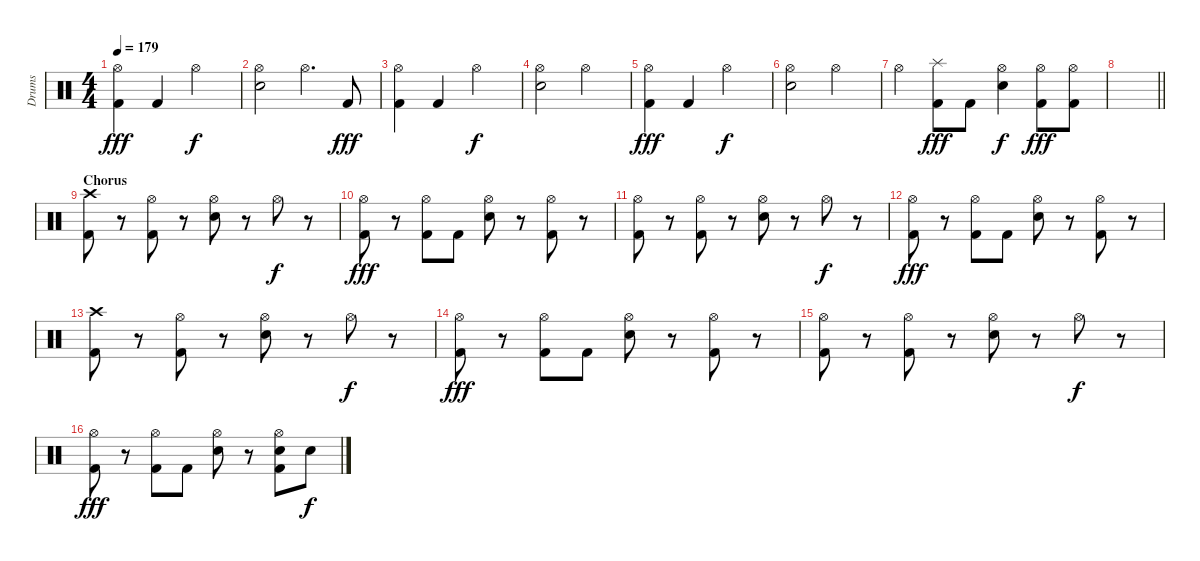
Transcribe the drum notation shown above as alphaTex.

\track ("Drums" "Drums") {instrument percussion}
\staff {score}
\articulation defaults
\ts (4 4)
\tempo 179
\clef neutral
\ks c
("Hi-Hat (open)" "Kick (hit) 2").4{dy fff} "Kick (hit) 2".4 "Hi-Hat (open)".2{dy f} |
("Hi-Hat (open)" "Snare (hit) 2").2 "Hi-Hat (open)".4{d} "Kick (hit) 2".8{dy fff} |
("Hi-Hat (open)" "Kick (hit) 2").4 "Kick (hit) 2".4 "Hi-Hat (open)".2{dy f} |
("Hi-Hat (open)" "Snare (hit) 2").2 "Hi-Hat (open)".2 |
("Hi-Hat (open)" "Kick (hit) 2").4{dy fff} "Kick (hit) 2".4 "Hi-Hat (open)".2{dy f} |
("Hi-Hat (open)" "Snare (hit) 2").2 "Hi-Hat (open)".2 |
"Hi-Hat (open)".4 ("Splash (hit)" "Kick (hit) 2").8{dy fff} "Kick (hit) 2".8 ("Hi-Hat (open)" "Snare (hit) 2").4{dy f} ("Hi-Hat (open)" "Kick (hit) 2").8{dy fff} ("Hi-Hat (open)" "Kick (hit) 2").8 |
\barLineRight lightlight
|
\section ("" "Chorus")
("Crash high (hit)" "Kick (hit) 2").8 r.8 ("Hi-Hat (open)" "Kick (hit) 2").8 r.8 ("Hi-Hat (open)" "Snare (hit) 2").8 r.8 "Hi-Hat (open)".8{dy f} r.8 |
("Hi-Hat (open)" "Kick (hit) 2").8{dy fff} r.8 ("Hi-Hat (open)" "Kick (hit) 2").8 "Kick (hit) 2".8 ("Hi-Hat (open)" "Snare (hit) 2").8 r.8 ("Hi-Hat (open)" "Kick (hit) 2").8 r.8 |
("Hi-Hat (open)" "Kick (hit) 2").8 r.8 ("Hi-Hat (open)" "Kick (hit) 2").8 r.8 ("Hi-Hat (open)" "Snare (hit) 2").8 r.8 "Hi-Hat (open)".8{dy f} r.8 |
("Hi-Hat (open)" "Kick (hit) 2").8{dy fff} r.8 ("Hi-Hat (open)" "Kick (hit) 2").8 "Kick (hit) 2".8 ("Hi-Hat (open)" "Snare (hit) 2").8 r.8 ("Hi-Hat (open)" "Kick (hit) 2").8 r.8 |
("Crash high (hit)" "Kick (hit) 2").8 r.8 ("Hi-Hat (open)" "Kick (hit) 2").8 r.8 ("Hi-Hat (open)" "Snare (hit) 2").8 r.8 "Hi-Hat (open)".8{dy f} r.8 |
("Hi-Hat (open)" "Kick (hit) 2").8{dy fff} r.8 ("Hi-Hat (open)" "Kick (hit) 2").8 "Kick (hit) 2".8 ("Hi-Hat (open)" "Snare (hit) 2").8 r.8 ("Hi-Hat (open)" "Kick (hit) 2").8 r.8 |
("Hi-Hat (open)" "Kick (hit) 2").8 r.8 ("Hi-Hat (open)" "Kick (hit) 2").8 r.8 ("Hi-Hat (open)" "Snare (hit) 2").8 r.8 "Hi-Hat (open)".8{dy f} r.8 |
("Hi-Hat (open)" "Kick (hit) 2").8{dy fff} r.8 ("Hi-Hat (open)" "Kick (hit) 2").8 "Kick (hit) 2".8 ("Hi-Hat (open)" "Snare (hit) 2").8 r.8 ("Hi-Hat (open)" "Snare (hit) 2" "Kick (hit) 2").8 "Snare (hit) 2".8{dy f}
